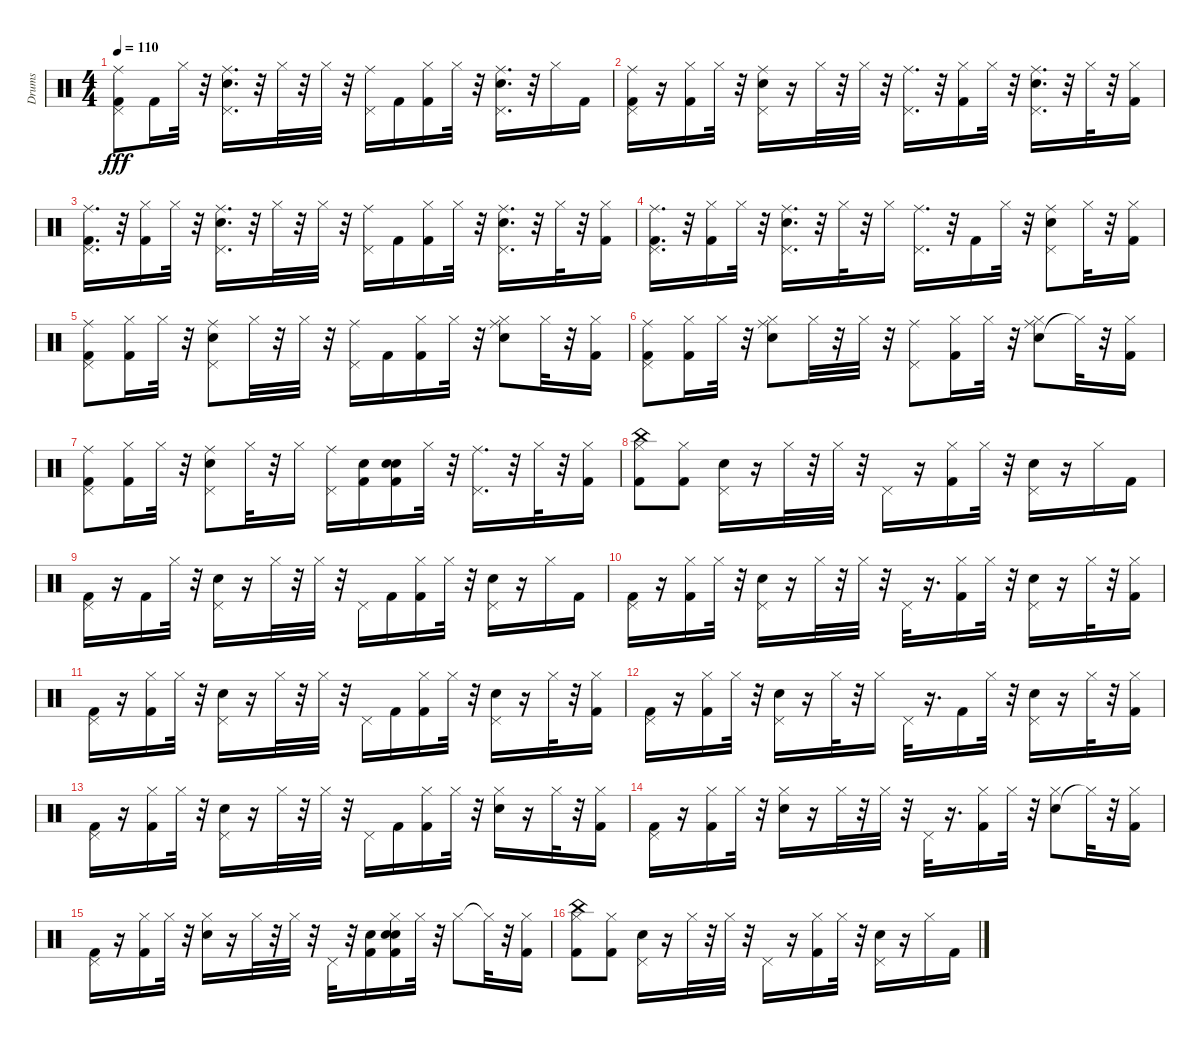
\track ("Drums" "Drums") {instrument percussion}
\staff {score}
\articulation defaults
\ts (4 4)
\tempo 110
\clef neutral
\ks c
("Kick (hit) 2" "Pedal Hi-Hat (hit)" "Ride (middle)").8{dy fff} "Kick (hit) 2".16 "Hi-Hat (closed)".32 r.32 ("Snare (hit) 2" "Pedal Hi-Hat (hit)" "Ride (middle)").16{d} r.32 "Hi-Hat (closed)".32 r.32 "Hi-Hat (closed)".32 r.32 ("Pedal Hi-Hat (hit)" "Ride (middle)").16 "Kick (hit) 2".16 ("Kick (hit) 2" "Hi-Hat (closed)").16 "Hi-Hat (closed)".32 r.32 ("Snare (hit) 2" "Pedal Hi-Hat (hit)" "Ride (middle)").16{d} r.32 "Hi-Hat (closed)".16 "Kick (hit) 2".16 |
("Kick (hit) 2" "Pedal Hi-Hat (hit)" "Ride (middle)").16 r.16 ("Kick (hit) 2" "Hi-Hat (closed)").16 "Hi-Hat (closed)".32 r.32 ("Snare (hit) 2" "Pedal Hi-Hat (hit)" "Ride (middle)").16 r.16 "Hi-Hat (closed)".32 r.32 "Hi-Hat (closed)".32 r.32 ("Pedal Hi-Hat (hit)" "Ride (middle)").16{d} r.32 ("Kick (hit) 2" "Hi-Hat (closed)").16 "Hi-Hat (closed)".32 r.32 ("Snare (hit) 2" "Pedal Hi-Hat (hit)" "Ride (middle)").16{d} r.32 "Hi-Hat (closed)".32 r.32 ("Kick (hit) 2" "Hi-Hat (closed)").16 |
("Kick (hit) 2" "Pedal Hi-Hat (hit)" "Ride (middle)").16{d} r.32 ("Kick (hit) 2" "Hi-Hat (closed)").16 "Hi-Hat (closed)".32 r.32 ("Snare (hit) 2" "Pedal Hi-Hat (hit)" "Ride (middle)").16{d} r.32 "Hi-Hat (closed)".32 r.32 "Hi-Hat (closed)".32 r.32 ("Pedal Hi-Hat (hit)" "Ride (middle)").16 "Kick (hit) 2".16 ("Kick (hit) 2" "Hi-Hat (closed)").16 "Hi-Hat (closed)".32 r.32 ("Snare (hit) 2" "Pedal Hi-Hat (hit)" "Ride (middle)").16{d} r.32 "Hi-Hat (closed)".32 r.32 ("Kick (hit) 2" "Hi-Hat (closed)").16 |
("Kick (hit) 2" "Pedal Hi-Hat (hit)" "Ride (middle)").16{d} r.32 ("Kick (hit) 2" "Hi-Hat (closed)").16 "Hi-Hat (closed)".32 r.32 ("Snare (hit) 2" "Pedal Hi-Hat (hit)" "Ride (middle)").16{d} r.32 "Hi-Hat (closed)".32 r.32 "Hi-Hat (closed)".16 ("Pedal Hi-Hat (hit)" "Ride (middle)").16{d} r.32 "Kick (hit) 2".16 "Hi-Hat (closed)".32 r.32 ("Snare (hit) 2" "Pedal Hi-Hat (hit)" "Ride (middle)").8 "Hi-Hat (closed)".32 r.32 ("Kick (hit) 2" "Hi-Hat (closed)").16 |
("Kick (hit) 2" "Pedal Hi-Hat (hit)" "Ride (middle)").8 ("Kick (hit) 2" "Hi-Hat (closed)").16 "Hi-Hat (closed)".32 r.32 ("Snare (hit) 2" "Pedal Hi-Hat (hit)" "Ride (middle)").8 "Hi-Hat (closed)".32 r.32 "Hi-Hat (closed)".32 r.32 ("Pedal Hi-Hat (hit)" "Ride (middle)").16 "Kick (hit) 2".16 ("Kick (hit) 2" "Hi-Hat (closed)").16 "Hi-Hat (closed)".32 r.32 ("Snare (hit) 2" "Hi-Hat (closed)" "Ride (middle)").8 "Hi-Hat (closed)".32 r.32 ("Kick (hit) 2" "Hi-Hat (closed)").16 |
("Kick (hit) 2" "Pedal Hi-Hat (hit)" "Ride (middle)").8 ("Kick (hit) 2" "Hi-Hat (closed)").16 "Hi-Hat (closed)".32 r.32 ("Snare (hit) 2" "Hi-Hat (closed)" "Ride (middle)").8 "Hi-Hat (closed)".32 r.32 "Hi-Hat (closed)".32 r.32 ("Pedal Hi-Hat (hit)" "Ride (middle)").8 ("Kick (hit) 2" "Hi-Hat (closed)").16 "Hi-Hat (closed)".32 r.32 ("Snare (hit) 2" "Hi-Hat (closed)" "Ride (middle)").8 "Hi-Hat (closed)"{t}.32 r.32 ("Kick (hit) 2" "Hi-Hat (closed)").16 |
("Kick (hit) 2" "Pedal Hi-Hat (hit)" "Ride (middle)").8 ("Kick (hit) 2" "Hi-Hat (closed)").16 "Hi-Hat (closed)".32 r.32 ("Snare (hit) 2" "Pedal Hi-Hat (hit)" "Ride (middle)").8 "Hi-Hat (closed)".32 r.32 "Hi-Hat (closed)".16 ("Pedal Hi-Hat (hit)" "Ride (middle)").16 ("Kick (hit) 2" "Snare (hit) 2").16 ("Snare (hit) 2" "Kick (hit) 2" "Snare (hit) 2").16 "Hi-Hat (closed)".32 r.32 ("Pedal Hi-Hat (hit)" "Ride (middle)").16{d} r.32 "Hi-Hat (closed)".32 r.32 ("Kick (hit) 2" "Hi-Hat (closed)").16 |
("Kick (hit) 2" "Hi-Hat (closed)" "China (hit)").8 ("Kick (hit) 2" "Hi-Hat (closed)").8 ("Snare (hit) 2" "Pedal Hi-Hat (hit)").16 r.16 "Hi-Hat (closed)".32 r.32 "Hi-Hat (closed)".32 r.32 "Pedal Hi-Hat (hit)".16 r.16 ("Kick (hit) 2" "Hi-Hat (closed)").16 "Hi-Hat (closed)".32 r.32 ("Snare (hit) 2" "Pedal Hi-Hat (hit)").16 r.16 "Hi-Hat (closed)".16 "Kick (hit) 2".16 |
("Kick (hit) 2" "Pedal Hi-Hat (hit)").16 r.16 "Kick (hit) 2".16 "Hi-Hat (closed)".32 r.32 ("Snare (hit) 2" "Pedal Hi-Hat (hit)").16 r.16 "Hi-Hat (closed)".32 r.32 "Hi-Hat (closed)".32 r.32 "Pedal Hi-Hat (hit)".16 "Kick (hit) 2".16 ("Kick (hit) 2" "Hi-Hat (closed)").16 "Hi-Hat (closed)".32 r.32 ("Snare (hit) 2" "Pedal Hi-Hat (hit)").16 r.16 "Hi-Hat (closed)".16 "Kick (hit) 2".16 |
("Kick (hit) 2" "Pedal Hi-Hat (hit)").16 r.16 ("Kick (hit) 2" "Hi-Hat (closed)").16 "Hi-Hat (closed)".32 r.32 ("Snare (hit) 2" "Pedal Hi-Hat (hit)").16 r.16 "Hi-Hat (closed)".32 r.32 "Hi-Hat (closed)".32 r.32 "Pedal Hi-Hat (hit)".32 r.16{d} ("Kick (hit) 2" "Hi-Hat (closed)").16 "Hi-Hat (closed)".32 r.32 ("Snare (hit) 2" "Pedal Hi-Hat (hit)").16 r.16 "Hi-Hat (closed)".32 r.32 ("Kick (hit) 2" "Hi-Hat (closed)").16 |
("Kick (hit) 2" "Pedal Hi-Hat (hit)").16 r.16 ("Kick (hit) 2" "Hi-Hat (closed)").16 "Hi-Hat (closed)".32 r.32 ("Snare (hit) 2" "Pedal Hi-Hat (hit)").16 r.16 "Hi-Hat (closed)".32 r.32 "Hi-Hat (closed)".32 r.32 "Pedal Hi-Hat (hit)".16 "Kick (hit) 2".16 ("Kick (hit) 2" "Hi-Hat (closed)").16 "Hi-Hat (closed)".32 r.32 ("Snare (hit) 2" "Pedal Hi-Hat (hit)").16 r.16 "Hi-Hat (closed)".32 r.32 ("Kick (hit) 2" "Hi-Hat (closed)").16 |
("Kick (hit) 2" "Pedal Hi-Hat (hit)").16 r.16 ("Kick (hit) 2" "Hi-Hat (closed)").16 "Hi-Hat (closed)".32 r.32 ("Snare (hit) 2" "Pedal Hi-Hat (hit)").16 r.16 "Hi-Hat (closed)".32 r.32 "Hi-Hat (closed)".16 "Pedal Hi-Hat (hit)".32 r.16{d} "Kick (hit) 2".16 "Hi-Hat (closed)".32 r.32 ("Snare (hit) 2" "Pedal Hi-Hat (hit)").16 r.16 "Hi-Hat (closed)".32 r.32 ("Kick (hit) 2" "Hi-Hat (closed)").16 |
("Kick (hit) 2" "Pedal Hi-Hat (hit)").16 r.16 ("Kick (hit) 2" "Hi-Hat (closed)").16 "Hi-Hat (closed)".32 r.32 ("Snare (hit) 2" "Pedal Hi-Hat (hit)").16 r.16 "Hi-Hat (closed)".32 r.32 "Hi-Hat (closed)".32 r.32 "Pedal Hi-Hat (hit)".16 "Kick (hit) 2".16 ("Kick (hit) 2" "Hi-Hat (closed)").16 "Hi-Hat (closed)".32 r.32 ("Snare (hit) 2" "Hi-Hat (closed)").16 r.16 "Hi-Hat (closed)".32 r.32 ("Kick (hit) 2" "Hi-Hat (closed)").16 |
("Kick (hit) 2" "Pedal Hi-Hat (hit)").16 r.16 ("Kick (hit) 2" "Hi-Hat (closed)").16 "Hi-Hat (closed)".32 r.32 ("Snare (hit) 2" "Hi-Hat (closed)").16 r.16 "Hi-Hat (closed)".32 r.32 "Hi-Hat (closed)".32 r.32 "Pedal Hi-Hat (hit)".32 r.16{d} ("Kick (hit) 2" "Hi-Hat (closed)").16 "Hi-Hat (closed)".32 r.32 ("Snare (hit) 2" "Hi-Hat (closed)").8 "Hi-Hat (closed)"{t}.32 r.32 ("Kick (hit) 2" "Hi-Hat (closed)").16 |
("Kick (hit) 2" "Pedal Hi-Hat (hit)").16 r.16 ("Kick (hit) 2" "Hi-Hat (closed)").16 "Hi-Hat (closed)".32 r.32 ("Snare (hit) 2" "Hi-Hat (closed)").16 r.16 "Hi-Hat (closed)".32 r.32 "Hi-Hat (closed)".32 r.32 "Pedal Hi-Hat (hit)".32 r.32 ("Kick (hit) 2" "Snare (hit) 2").16 ("Snare (hit) 2" "Kick (hit) 2" "Hi-Hat (closed)" "Snare (hit) 2").16 "Hi-Hat (closed)".32 r.32 "Hi-Hat (closed)".8 "Hi-Hat (closed)"{t}.32 r.32 ("Kick (hit) 2" "Hi-Hat (closed)").16 |
("Kick (hit) 2" "Hi-Hat (closed)" "China (hit)").8 ("Kick (hit) 2" "Hi-Hat (closed)").8 ("Snare (hit) 2" "Pedal Hi-Hat (hit)").16 r.16 "Hi-Hat (closed)".32 r.32 "Hi-Hat (closed)".32 r.32 "Pedal Hi-Hat (hit)".16 r.16 ("Kick (hit) 2" "Hi-Hat (closed)").16 "Hi-Hat (closed)".32 r.32 ("Snare (hit) 2" "Pedal Hi-Hat (hit)").16 r.16 "Hi-Hat (closed)".16 "Kick (hit) 2".16
